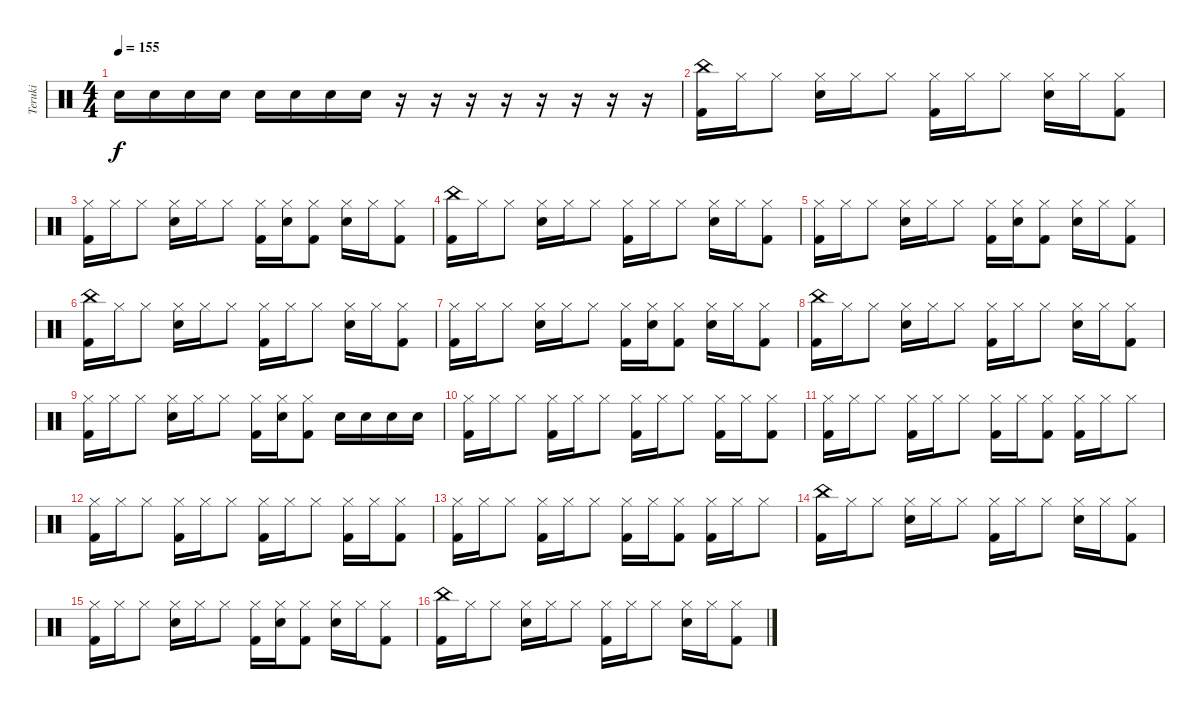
\track ("Teruki" "Teruki") {instrument percussion}
\staff {score}
\articulation defaults
\ts (4 4)
\tempo 155
\clef neutral
\ks c "Snare (hit) 2".16{dy f} "Snare (hit) 2".16 "Snare (hit) 2".16 "Snare (hit) 2".16 "Snare (hit) 2".16 "Snare (hit) 2".16 "Snare (hit) 2".16 "Snare (hit) 2".16
r.16 r.16 r.16 r.16 r.16 r.16 r.16 r.16 |
("China (hit)" "Kick (hit) 2").16 "Hi-Hat (closed)".16 "Hi-Hat (closed)".8 ("Hi-Hat (closed)" "Snare (hit) 2").16 "Hi-Hat (closed)".16 "Hi-Hat (closed)".8 ("Hi-Hat (closed)" "Kick (hit) 2").16 "Hi-Hat (closed)".16 "Hi-Hat (closed)".8 ("Hi-Hat (closed)" "Snare (hit) 2").16 "Hi-Hat (closed)".16 ("Hi-Hat (closed)" "Kick (hit) 2").8 |
("Hi-Hat (closed)" "Kick (hit) 2").16 "Hi-Hat (closed)".16 "Hi-Hat (closed)".8 ("Hi-Hat (closed)" "Snare (hit) 2").16 "Hi-Hat (closed)".16 "Hi-Hat (closed)".8 ("Hi-Hat (closed)" "Kick (hit) 2").16 ("Hi-Hat (closed)" "Snare (hit) 2").16 ("Hi-Hat (closed)" "Kick (hit) 2").8 ("Hi-Hat (closed)" "Snare (hit) 2").16 "Hi-Hat (closed)".16 ("Hi-Hat (closed)" "Kick (hit) 2").8 |
("China (hit)" "Kick (hit) 2").16 "Hi-Hat (closed)".16 "Hi-Hat (closed)".8 ("Hi-Hat (closed)" "Snare (hit) 2").16 "Hi-Hat (closed)".16 "Hi-Hat (closed)".8 ("Hi-Hat (closed)" "Kick (hit) 2").16 "Hi-Hat (closed)".16 "Hi-Hat (closed)".8 ("Hi-Hat (closed)" "Snare (hit) 2").16 "Hi-Hat (closed)".16 ("Hi-Hat (closed)" "Kick (hit) 2").8 |
("Hi-Hat (closed)" "Kick (hit) 2").16 "Hi-Hat (closed)".16 "Hi-Hat (closed)".8 ("Hi-Hat (closed)" "Snare (hit) 2").16 "Hi-Hat (closed)".16 "Hi-Hat (closed)".8 ("Hi-Hat (closed)" "Kick (hit) 2").16 ("Hi-Hat (closed)" "Snare (hit) 2").16 ("Hi-Hat (closed)" "Kick (hit) 2").8 ("Hi-Hat (closed)" "Snare (hit) 2").16 "Hi-Hat (closed)".16 ("Hi-Hat (closed)" "Kick (hit) 2").8 |
("China (hit)" "Kick (hit) 2").16 "Hi-Hat (closed)".16 "Hi-Hat (closed)".8 ("Hi-Hat (closed)" "Snare (hit) 2").16 "Hi-Hat (closed)".16 "Hi-Hat (closed)".8 ("Hi-Hat (closed)" "Kick (hit) 2").16 "Hi-Hat (closed)".16 "Hi-Hat (closed)".8 ("Hi-Hat (closed)" "Snare (hit) 2").16 "Hi-Hat (closed)".16 ("Hi-Hat (closed)" "Kick (hit) 2").8 |
("Hi-Hat (closed)" "Kick (hit) 2").16 "Hi-Hat (closed)".16 "Hi-Hat (closed)".8 ("Hi-Hat (closed)" "Snare (hit) 2").16 "Hi-Hat (closed)".16 "Hi-Hat (closed)".8 ("Hi-Hat (closed)" "Kick (hit) 2").16 ("Hi-Hat (closed)" "Snare (hit) 2").16 ("Hi-Hat (closed)" "Kick (hit) 2").8 ("Hi-Hat (closed)" "Snare (hit) 2").16 "Hi-Hat (closed)".16 ("Hi-Hat (closed)" "Kick (hit) 2").8 |
("China (hit)" "Kick (hit) 2").16 "Hi-Hat (closed)".16 "Hi-Hat (closed)".8 ("Hi-Hat (closed)" "Snare (hit) 2").16 "Hi-Hat (closed)".16 "Hi-Hat (closed)".8 ("Hi-Hat (closed)" "Kick (hit) 2").16 "Hi-Hat (closed)".16 "Hi-Hat (closed)".8 ("Hi-Hat (closed)" "Snare (hit) 2").16 "Hi-Hat (closed)".16 ("Hi-Hat (closed)" "Kick (hit) 2").8 |
("Hi-Hat (closed)" "Kick (hit) 2").16 "Hi-Hat (closed)".16 "Hi-Hat (closed)".8 ("Hi-Hat (closed)" "Snare (hit) 2").16 "Hi-Hat (closed)".16 "Hi-Hat (closed)".8 ("Hi-Hat (closed)" "Kick (hit) 2").16 ("Hi-Hat (closed)" "Snare (hit) 2").16 ("Hi-Hat (closed)" "Kick (hit) 2").8 "Snare (hit) 2".16 "Snare (hit) 2".16 "Snare (hit) 2".16 "Snare (hit) 2".16 |
("Hi-Hat (closed)" "Kick (hit) 2").16 "Hi-Hat (closed)".16 "Hi-Hat (closed)".8 ("Hi-Hat (closed)" "Kick (hit) 2").16 "Hi-Hat (closed)".16 "Hi-Hat (closed)".8 ("Hi-Hat (closed)" "Kick (hit) 2").16 "Hi-Hat (closed)".16 "Hi-Hat (closed)".8 ("Hi-Hat (closed)" "Kick (hit) 2").16 "Hi-Hat (closed)".16 ("Hi-Hat (closed)" "Kick (hit) 2").8 |
("Hi-Hat (closed)" "Kick (hit) 2").16 "Hi-Hat (closed)".16 "Hi-Hat (closed)".8 ("Hi-Hat (closed)" "Kick (hit) 2").16 "Hi-Hat (closed)".16 "Hi-Hat (closed)".8 ("Hi-Hat (closed)" "Kick (hit) 2").16 "Hi-Hat (closed)".16 ("Hi-Hat (closed)" "Kick (hit) 2").8 ("Hi-Hat (closed)" "Kick (hit) 2").16 "Hi-Hat (closed)".16 "Hi-Hat (closed)".8 |
("Hi-Hat (closed)" "Kick (hit) 2").16 "Hi-Hat (closed)".16 "Hi-Hat (closed)".8 ("Hi-Hat (closed)" "Kick (hit) 2").16 "Hi-Hat (closed)".16 "Hi-Hat (closed)".8 ("Hi-Hat (closed)" "Kick (hit) 2").16 "Hi-Hat (closed)".16 "Hi-Hat (closed)".8 ("Hi-Hat (closed)" "Kick (hit) 2").16 "Hi-Hat (closed)".16 ("Hi-Hat (closed)" "Kick (hit) 2").8 |
("Hi-Hat (closed)" "Kick (hit) 2").16 "Hi-Hat (closed)".16 "Hi-Hat (closed)".8 ("Hi-Hat (closed)" "Kick (hit) 2").16 "Hi-Hat (closed)".16 "Hi-Hat (closed)".8 ("Hi-Hat (closed)" "Kick (hit) 2").16 "Hi-Hat (closed)".16 ("Hi-Hat (closed)" "Kick (hit) 2").8 ("Hi-Hat (closed)" "Kick (hit) 2").16 "Hi-Hat (closed)".16 "Hi-Hat (closed)".8 |
("China (hit)" "Kick (hit) 2").16 "Hi-Hat (closed)".16 "Hi-Hat (closed)".8 ("Hi-Hat (closed)" "Snare (hit) 2").16 "Hi-Hat (closed)".16 "Hi-Hat (closed)".8 ("Hi-Hat (closed)" "Kick (hit) 2").16 "Hi-Hat (closed)".16 "Hi-Hat (closed)".8 ("Hi-Hat (closed)" "Snare (hit) 2").16 "Hi-Hat (closed)".16 ("Hi-Hat (closed)" "Kick (hit) 2").8 |
("Hi-Hat (closed)" "Kick (hit) 2").16 "Hi-Hat (closed)".16 "Hi-Hat (closed)".8 ("Hi-Hat (closed)" "Snare (hit) 2").16 "Hi-Hat (closed)".16 "Hi-Hat (closed)".8 ("Hi-Hat (closed)" "Kick (hit) 2").16 ("Hi-Hat (closed)" "Snare (hit) 2").16 ("Hi-Hat (closed)" "Kick (hit) 2").8 ("Hi-Hat (closed)" "Snare (hit) 2").16 "Hi-Hat (closed)".16 ("Hi-Hat (closed)" "Kick (hit) 2").8 |
("China (hit)" "Kick (hit) 2").16 "Hi-Hat (closed)".16 "Hi-Hat (closed)".8 ("Hi-Hat (closed)" "Snare (hit) 2").16 "Hi-Hat (closed)".16 "Hi-Hat (closed)".8 ("Hi-Hat (closed)" "Kick (hit) 2").16 "Hi-Hat (closed)".16 "Hi-Hat (closed)".8 ("Hi-Hat (closed)" "Snare (hit) 2").16 "Hi-Hat (closed)".16 ("Hi-Hat (closed)" "Kick (hit) 2").8
